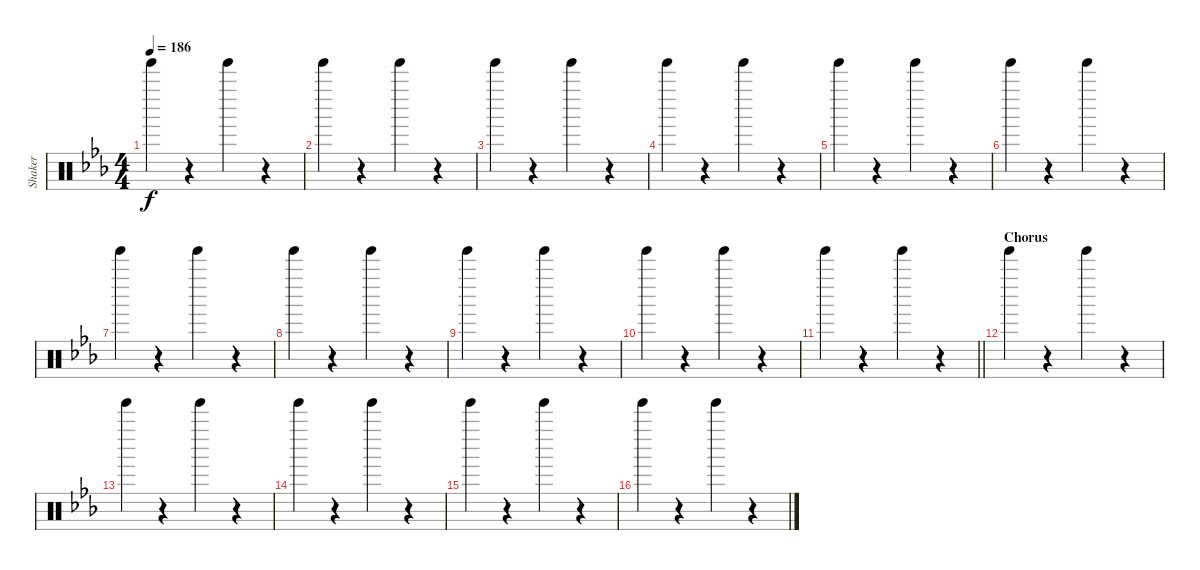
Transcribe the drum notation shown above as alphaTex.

\track ("Shaker" "Shaker") {instrument percussion}
\staff {score}
\articulation defaults
\ts (4 4)
\tempo 186
\clef neutral
\ks eb "Tinkle Bell (hit)".4{dy f}
r.4 "Tinkle Bell (hit)".4 r.4 |
"Tinkle Bell (hit)".4 r.4 "Tinkle Bell (hit)".4 r.4 |
"Tinkle Bell (hit)".4 r.4 "Tinkle Bell (hit)".4 r.4 |
"Tinkle Bell (hit)".4 r.4 "Tinkle Bell (hit)".4 r.4 |
"Tinkle Bell (hit)".4 r.4 "Tinkle Bell (hit)".4 r.4 |
"Tinkle Bell (hit)".4 r.4 "Tinkle Bell (hit)".4 r.4 |
"Tinkle Bell (hit)".4 r.4 "Tinkle Bell (hit)".4 r.4 |
"Tinkle Bell (hit)".4 r.4 "Tinkle Bell (hit)".4 r.4 |
"Tinkle Bell (hit)".4 r.4 "Tinkle Bell (hit)".4 r.4 |
"Tinkle Bell (hit)".4 r.4 "Tinkle Bell (hit)".4 r.4 |
\barLineRight lightlight "Tinkle Bell (hit)".4
r.4 "Tinkle Bell (hit)".4 r.4 |
\section ("" "Chorus")
"Tinkle Bell (hit)".4 r.4 "Tinkle Bell (hit)".4 r.4 |
"Tinkle Bell (hit)".4 r.4 "Tinkle Bell (hit)".4 r.4 |
"Tinkle Bell (hit)".4 r.4 "Tinkle Bell (hit)".4 r.4 |
"Tinkle Bell (hit)".4 r.4 "Tinkle Bell (hit)".4 r.4 |
"Tinkle Bell (hit)".4 r.4 "Tinkle Bell (hit)".4 r.4
